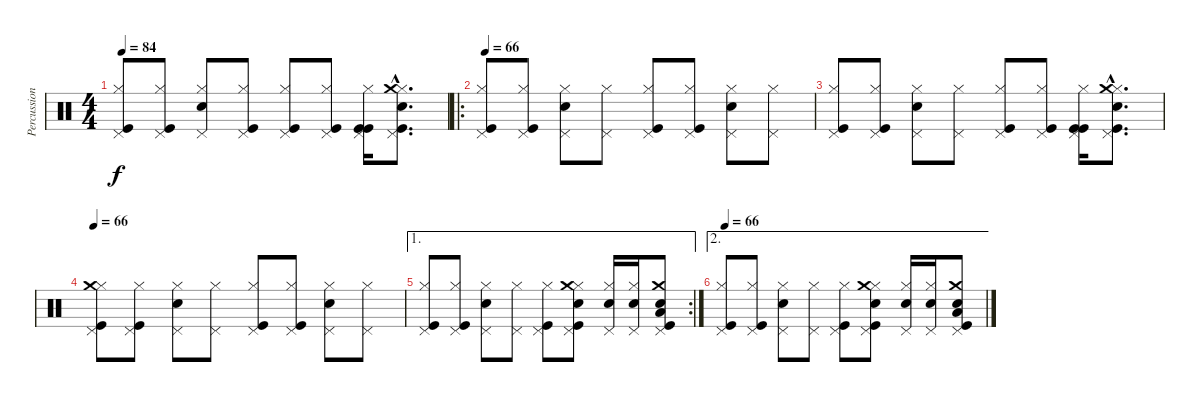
\track ("Percussion" "Percussion") {instrument percussion}
\staff {score}
\articulation defaults
\ts (4 4)
\tempo 84
\clef neutral
\ks c
("Pedal Hi-Hat (hit)" "Hi-Hat (closed)" "Kick (hit)").8{dy f} ("Pedal Hi-Hat (hit)" "Hi-Hat (closed)" "Kick (hit)").8 ("Pedal Hi-Hat (hit)" "Hi-Hat (closed)" "Electric Snare (hit)").8 ("Pedal Hi-Hat (hit)" "Hi-Hat (closed)" "Kick (hit)").8 ("Pedal Hi-Hat (hit)" "Hi-Hat (closed)" "Kick (hit)").8 ("Pedal Hi-Hat (hit)" "Hi-Hat (closed)" "Kick (hit)").8 ("Pedal Hi-Hat (hit)" "Hi-Hat (closed)" "Kick (hit)" "Kick (hit)").16 ("Pedal Hi-Hat (hit)"{hac} "Hi-Hat (closed)"{hac} "Crash medium (hit)"{hac} "Electric Snare (hit)"{hac} "Kick (hit)"{hac}).8{d} |
\ro
\tempo 66
("Pedal Hi-Hat (hit)" "Hi-Hat (closed)" "Kick (hit)").8 ("Pedal Hi-Hat (hit)" "Hi-Hat (closed)" "Kick (hit)").8 ("Pedal Hi-Hat (hit)" "Hi-Hat (closed)" "Electric Snare (hit)").8 ("Pedal Hi-Hat (hit)" "Hi-Hat (closed)").8 ("Pedal Hi-Hat (hit)" "Hi-Hat (closed)" "Kick (hit)").8 ("Pedal Hi-Hat (hit)" "Hi-Hat (closed)" "Kick (hit)").8 ("Pedal Hi-Hat (hit)" "Hi-Hat (closed)" "Electric Snare (hit)").8 ("Pedal Hi-Hat (hit)" "Hi-Hat (closed)").8 |
("Pedal Hi-Hat (hit)" "Hi-Hat (closed)" "Kick (hit)").8 ("Pedal Hi-Hat (hit)" "Hi-Hat (closed)" "Kick (hit)").8 ("Pedal Hi-Hat (hit)" "Hi-Hat (closed)" "Electric Snare (hit)").8 ("Pedal Hi-Hat (hit)" "Hi-Hat (closed)").8 ("Pedal Hi-Hat (hit)" "Hi-Hat (closed)" "Kick (hit)").8 ("Pedal Hi-Hat (hit)" "Hi-Hat (closed)" "Kick (hit)").8 ("Pedal Hi-Hat (hit)" "Hi-Hat (closed)" "Kick (hit)" "Kick (hit)").16 ("Pedal Hi-Hat (hit)"{hac} "Hi-Hat (closed)"{hac} "Crash medium (hit)"{hac} "Electric Snare (hit)"{hac} "Kick (hit)"{hac}).8{d} |
\tempo 66
("Pedal Hi-Hat (hit)" "Hi-Hat (closed)" "Crash medium (hit)" "Kick (hit)").8 ("Pedal Hi-Hat (hit)" "Hi-Hat (closed)" "Kick (hit)").8 ("Pedal Hi-Hat (hit)" "Hi-Hat (closed)" "Electric Snare (hit)").8 ("Pedal Hi-Hat (hit)" "Hi-Hat (closed)").8 ("Pedal Hi-Hat (hit)" "Hi-Hat (closed)" "Kick (hit)").8 ("Pedal Hi-Hat (hit)" "Hi-Hat (closed)" "Kick (hit)").8 ("Pedal Hi-Hat (hit)" "Hi-Hat (closed)" "Electric Snare (hit)").8 ("Pedal Hi-Hat (hit)" "Hi-Hat (closed)").8 |
\ae 1
\rc 2
("Pedal Hi-Hat (hit)" "Hi-Hat (closed)" "Kick (hit)").8 ("Pedal Hi-Hat (hit)" "Hi-Hat (closed)" "Kick (hit)").8 ("Pedal Hi-Hat (hit)" "Hi-Hat (closed)" "Electric Snare (hit)").8 ("Pedal Hi-Hat (hit)" "Hi-Hat (closed)").8 ("Pedal Hi-Hat (hit)" "Hi-Hat (closed)" "Kick (hit)").8 ("Pedal Hi-Hat (hit)" "Hi-Hat (closed)" "Crash medium (hit)" "Electric Snare (hit)" "Kick (hit)").8 ("Pedal Hi-Hat (hit)" "Hi-Hat (closed)" "Electric Snare (hit)").16 ("Pedal Hi-Hat (hit)" "Hi-Hat (closed)" "Electric Snare (hit)").16 ("Pedal Hi-Hat (hit)" "Low Tom (hit)" "Crash medium (hit)" "Electric Snare (hit)" "Kick (hit)").8 |
\ae 2
\tempo 66
("Pedal Hi-Hat (hit)" "Hi-Hat (closed)" "Kick (hit)").8 ("Pedal Hi-Hat (hit)" "Hi-Hat (closed)" "Kick (hit)").8 ("Pedal Hi-Hat (hit)" "Hi-Hat (closed)" "Electric Snare (hit)").8 ("Pedal Hi-Hat (hit)" "Hi-Hat (closed)").8 ("Pedal Hi-Hat (hit)" "Hi-Hat (closed)" "Kick (hit)").8 ("Pedal Hi-Hat (hit)" "Hi-Hat (closed)" "Crash medium (hit)" "Electric Snare (hit)" "Kick (hit)").8 ("Pedal Hi-Hat (hit)" "Hi-Hat (closed)" "Electric Snare (hit)").16 ("Pedal Hi-Hat (hit)" "Hi-Hat (closed)" "Electric Snare (hit)").16 ("Pedal Hi-Hat (hit)" "Low Tom (hit)" "Crash medium (hit)" "Electric Snare (hit)" "Kick (hit)").8
